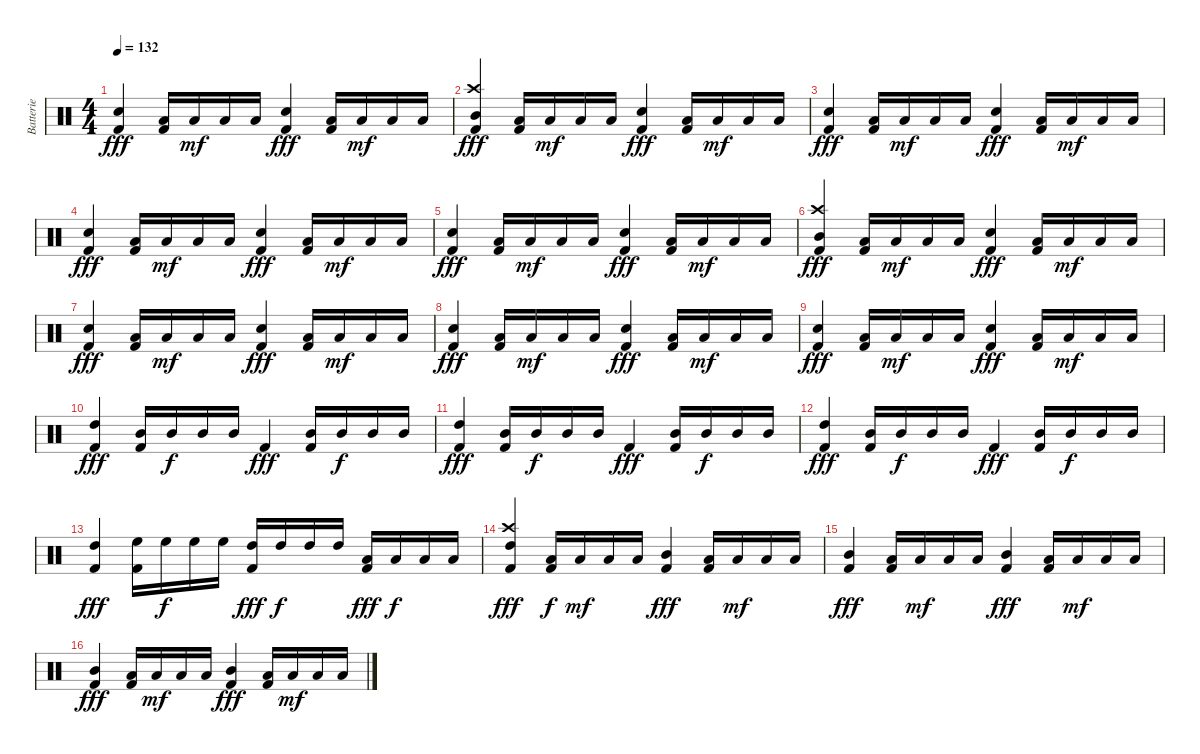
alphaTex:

\track ("Batterie" "Batterie") {instrument percussion}
\staff {score}
\articulation defaults
\ts (4 4)
\tempo 132
\clef neutral
\ks c
("Electric Snare (hit)" "Kick (hit) 2").4{dy fff} ("Low Tom (hit)" "Kick (hit) 2").16 "Low Tom (hit)".16{dy mf} "Low Tom (hit)".16 "Low Tom (hit)".16 ("Electric Snare (hit)" "Kick (hit) 2").4{dy fff} ("Low Tom (hit)" "Kick (hit) 2").16 "Low Tom (hit)".16{dy mf} "Low Tom (hit)".16 "Low Tom (hit)".16 |
("Crash high (hit)" "Mid Tom (hit)" "Kick (hit) 2").4{dy fff} ("Low Tom (hit)" "Kick (hit) 2").16 "Low Tom (hit)".16{dy mf} "Low Tom (hit)".16 "Low Tom (hit)".16 ("Electric Snare (hit)" "Kick (hit) 2").4{dy fff} ("Low Tom (hit)" "Kick (hit) 2").16 "Low Tom (hit)".16{dy mf} "Low Tom (hit)".16 "Low Tom (hit)".16 |
("Electric Snare (hit)" "Kick (hit) 2").4{dy fff} ("Low Tom (hit)" "Kick (hit) 2").16 "Low Tom (hit)".16{dy mf} "Low Tom (hit)".16 "Low Tom (hit)".16 ("Electric Snare (hit)" "Kick (hit) 2").4{dy fff} ("Low Tom (hit)" "Kick (hit) 2").16 "Low Tom (hit)".16{dy mf} "Low Tom (hit)".16 "Low Tom (hit)".16 |
("Electric Snare (hit)" "Kick (hit) 2").4{dy fff} ("Low Tom (hit)" "Kick (hit) 2").16 "Low Tom (hit)".16{dy mf} "Low Tom (hit)".16 "Low Tom (hit)".16 ("Electric Snare (hit)" "Kick (hit) 2").4{dy fff} ("Low Tom (hit)" "Kick (hit) 2").16 "Low Tom (hit)".16{dy mf} "Low Tom (hit)".16 "Low Tom (hit)".16 |
("Electric Snare (hit)" "Kick (hit) 2").4{dy fff} ("Low Tom (hit)" "Kick (hit) 2").16 "Low Tom (hit)".16{dy mf} "Low Tom (hit)".16 "Low Tom (hit)".16 ("Electric Snare (hit)" "Kick (hit) 2").4{dy fff} ("Low Tom (hit)" "Kick (hit) 2").16 "Low Tom (hit)".16{dy mf} "Low Tom (hit)".16 "Low Tom (hit)".16 |
("Crash high (hit)" "Mid Tom (hit)" "Kick (hit) 2").4{dy fff} ("Low Tom (hit)" "Kick (hit) 2").16 "Low Tom (hit)".16{dy mf} "Low Tom (hit)".16 "Low Tom (hit)".16 ("Electric Snare (hit)" "Kick (hit) 2").4{dy fff} ("Low Tom (hit)" "Kick (hit) 2").16 "Low Tom (hit)".16{dy mf} "Low Tom (hit)".16 "Low Tom (hit)".16 |
("Electric Snare (hit)" "Kick (hit) 2").4{dy fff} ("Low Tom (hit)" "Kick (hit) 2").16 "Low Tom (hit)".16{dy mf} "Low Tom (hit)".16 "Low Tom (hit)".16 ("Electric Snare (hit)" "Kick (hit) 2").4{dy fff} ("Low Tom (hit)" "Kick (hit) 2").16 "Low Tom (hit)".16{dy mf} "Low Tom (hit)".16 "Low Tom (hit)".16 |
("Electric Snare (hit)" "Kick (hit) 2").4{dy fff} ("Low Tom (hit)" "Kick (hit) 2").16 "Low Tom (hit)".16{dy mf} "Low Tom (hit)".16 "Low Tom (hit)".16 ("Electric Snare (hit)" "Kick (hit) 2").4{dy fff} ("Low Tom (hit)" "Kick (hit) 2").16 "Low Tom (hit)".16{dy mf} "Low Tom (hit)".16 "Low Tom (hit)".16 |
("Electric Snare (hit)" "Kick (hit) 2").4{dy fff} ("Low Tom (hit)" "Kick (hit) 2").16 "Low Tom (hit)".16{dy mf} "Low Tom (hit)".16 "Low Tom (hit)".16 ("Electric Snare (hit)" "Kick (hit) 2").4{dy fff} ("Low Tom (hit)" "Kick (hit) 2").16 "Low Tom (hit)".16{dy mf} "Low Tom (hit)".16 "Low Tom (hit)".16 |
("High Tom (hit)" "Kick (hit) 2").4{dy fff} ("Mid Tom (hit)" "Kick (hit) 2").16 "Mid Tom (hit)".16{dy f} "Mid Tom (hit)".16 "Mid Tom (hit)".16 "Kick (hit) 2".4{dy fff} ("Mid Tom (hit)" "Kick (hit) 2").16 "Mid Tom (hit)".16{dy f} "Mid Tom (hit)".16 "Mid Tom (hit)".16 |
("High Tom (hit)" "Kick (hit) 2").4{dy fff} ("Mid Tom (hit)" "Kick (hit) 2").16 "Mid Tom (hit)".16{dy f} "Mid Tom (hit)".16 "Mid Tom (hit)".16 "Kick (hit) 2".4{dy fff} ("Mid Tom (hit)" "Kick (hit) 2").16 "Mid Tom (hit)".16{dy f} "Mid Tom (hit)".16 "Mid Tom (hit)".16 |
("High Tom (hit)" "Kick (hit) 2").4{dy fff} ("Mid Tom (hit)" "Kick (hit) 2").16 "Mid Tom (hit)".16{dy f} "Mid Tom (hit)".16 "Mid Tom (hit)".16 "Kick (hit) 2".4{dy fff} ("Mid Tom (hit)" "Kick (hit) 2").16 "Mid Tom (hit)".16{dy f} "Mid Tom (hit)".16 "Mid Tom (hit)".16 |
("High Tom (hit)" "Kick (hit) 2").4{dy fff} ("High Floor Tom (hit)" "Kick (hit) 2").16 "High Floor Tom (hit)".16{dy f} "High Floor Tom (hit)".16 "High Floor Tom (hit)".16 ("High Tom (hit)" "Kick (hit) 2").16{dy fff} "High Tom (hit)".16{dy f} "High Tom (hit)".16 "High Tom (hit)".16 ("Low Tom (hit)" "Kick (hit) 2").16{dy fff} "Low Tom (hit)".16{dy f} "Low Tom (hit)".16 "Low Tom (hit)".16 |
("Crash high (hit)" "High Tom (hit)" "Kick (hit) 2").4{dy fff} ("Low Tom (hit)" "Kick (hit) 2").16{dy f} "Low Tom (hit)".16{dy mf} "Low Tom (hit)".16 "Low Tom (hit)".16 ("Mid Tom (hit)" "Kick (hit) 2").4{dy fff} ("Low Tom (hit)" "Kick (hit) 2").16 "Low Tom (hit)".16{dy mf} "Low Tom (hit)".16 "Low Tom (hit)".16 |
("Mid Tom (hit)" "Kick (hit) 2").4{dy fff} ("Low Tom (hit)" "Kick (hit) 2").16 "Low Tom (hit)".16{dy mf} "Low Tom (hit)".16 "Low Tom (hit)".16 ("Mid Tom (hit)" "Kick (hit) 2").4{dy fff} ("Low Tom (hit)" "Kick (hit) 2").16 "Low Tom (hit)".16{dy mf} "Low Tom (hit)".16 "Low Tom (hit)".16 |
("Mid Tom (hit)" "Kick (hit) 2").4{dy fff} ("Low Tom (hit)" "Kick (hit) 2").16 "Low Tom (hit)".16{dy mf} "Low Tom (hit)".16 "Low Tom (hit)".16 ("Mid Tom (hit)" "Kick (hit) 2").4{dy fff} ("Low Tom (hit)" "Kick (hit) 2").16 "Low Tom (hit)".16{dy mf} "Low Tom (hit)".16 "Low Tom (hit)".16
